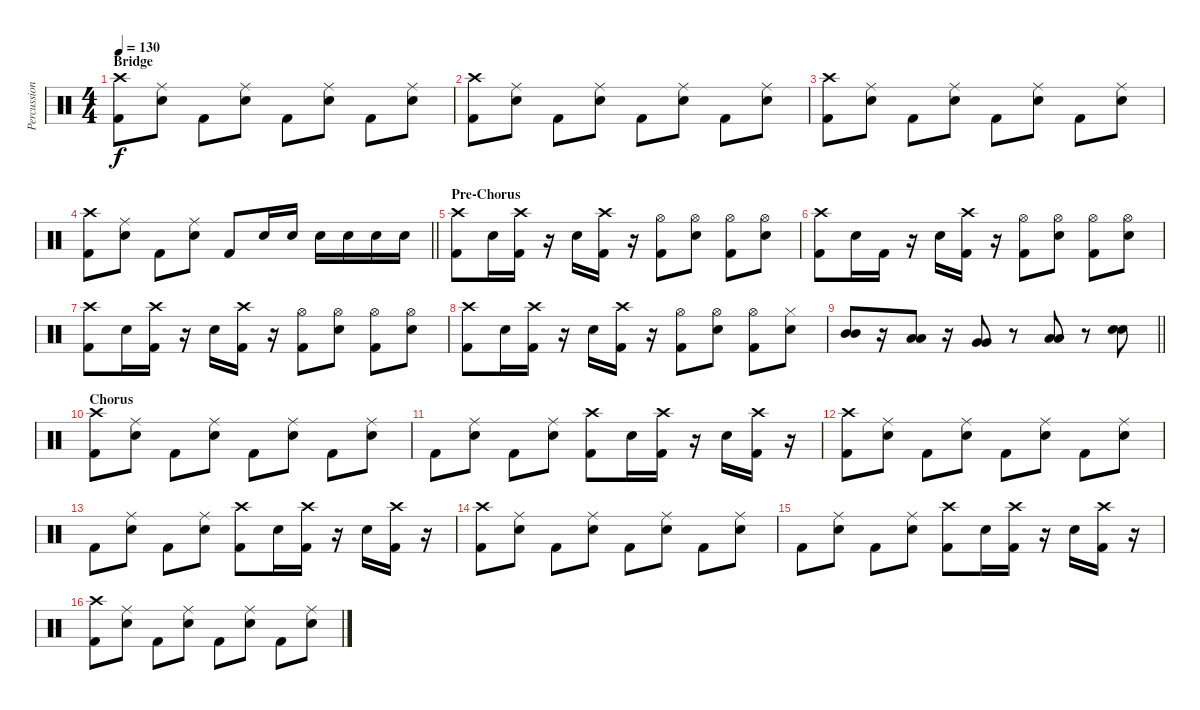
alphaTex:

\track ("Percussion" "Percussion") {instrument percussion}
\staff {score}
\articulation defaults
\ts (4 4)
\section ("" "Bridge")
\tempo 130
\clef neutral
\ks c
("Crash high (hit)" "Kick (hit) 2").8{dy f} ("Ride (middle)" "Snare (hit) 2").8 "Kick (hit) 2".8 ("Ride (middle)" "Snare (hit) 2").8 "Kick (hit) 2".8 ("Ride (middle)" "Snare (hit) 2").8 "Kick (hit) 2".8 ("Ride (middle)" "Snare (hit) 2").8 |
("Crash high (hit)" "Kick (hit) 2").8 ("Ride (middle)" "Snare (hit) 2").8 "Kick (hit) 2".8 ("Ride (middle)" "Snare (hit) 2").8 "Kick (hit) 2".8 ("Ride (middle)" "Snare (hit) 2").8 "Kick (hit) 2".8 ("Ride (middle)" "Snare (hit) 2").8 |
("Crash high (hit)" "Kick (hit) 2").8 ("Ride (middle)" "Snare (hit) 2").8 "Kick (hit) 2".8 ("Ride (middle)" "Snare (hit) 2").8 "Kick (hit) 2".8 ("Ride (middle)" "Snare (hit) 2").8 "Kick (hit) 2".8 ("Ride (middle)" "Snare (hit) 2").8 |
\barLineRight lightlight
("Crash high (hit)" "Kick (hit) 2").8 ("Ride (middle)" "Snare (hit) 2").8 "Kick (hit) 2".8 ("Ride (middle)" "Snare (hit) 2").8 "Kick (hit) 2".8 "Snare (hit) 2".16 "Snare (hit) 2".16 "Snare (hit) 2".16 "Snare (hit) 2".16 "Snare (hit) 2".16 "Snare (hit) 2".16 |
\section ("" "Pre-Chorus")
("Crash high (hit)" "Kick (hit) 2").8 "Snare (hit) 2".16 ("Crash high (hit)" "Kick (hit) 2").16 r.16 "Snare (hit) 2".16 ("Crash high (hit)" "Kick (hit) 2").16 r.16 ("Hi-Hat (open)" "Kick (hit) 2").8 ("Hi-Hat (open)" "Snare (hit) 2").8 ("Hi-Hat (open)" "Kick (hit) 2").8 ("Hi-Hat (open)" "Snare (hit) 2").8 |
("Crash high (hit)" "Kick (hit) 2").8 "Snare (hit) 2".16 "Kick (hit) 2".16 r.16 "Snare (hit) 2".16 ("Crash high (hit)" "Kick (hit) 2").16 r.16 ("Hi-Hat (open)" "Kick (hit) 2").8 ("Hi-Hat (open)" "Snare (hit) 2").8 ("Hi-Hat (open)" "Kick (hit) 2").8 ("Hi-Hat (open)" "Snare (hit) 2").8 |
("Crash high (hit)" "Kick (hit) 2").8 "Snare (hit) 2".16 ("Crash high (hit)" "Kick (hit) 2").16 r.16 "Snare (hit) 2".16 ("Crash high (hit)" "Kick (hit) 2").16 r.16 ("Hi-Hat (open)" "Kick (hit) 2").8 ("Hi-Hat (open)" "Snare (hit) 2").8 ("Hi-Hat (open)" "Kick (hit) 2").8 ("Hi-Hat (open)" "Snare (hit) 2").8 |
("Crash high (hit)" "Kick (hit) 2").8 "Snare (hit) 2".16 ("Crash high (hit)" "Kick (hit) 2").16 r.16 "Snare (hit) 2".16 ("Crash high (hit)" "Kick (hit) 2").16 r.16 ("Hi-Hat (open)" "Kick (hit) 2").8 ("Hi-Hat (open)" "Snare (hit) 2").8 ("Hi-Hat (open)" "Kick (hit) 2").8 ("Hi-Hat (closed)" "Snare (hit) 2").8 |
\barLineRight lightlight
("Mid Tom (hit)" "Mid Tom (hit)").8 r.16 ("Low Tom (hit)" "Low Tom (hit)").8 r.16 ("Very Low Tom (hit)" "Very Low Tom (hit)").8 r.8 ("Low Floor Tom (hit)" "Low Floor Tom (hit)").8 r.8 ("Snare (hit) 2" "Snare (hit) 2").8 |
\section ("" "Chorus")
("Crash high (hit)" "Kick (hit) 2").8 ("Ride (middle)" "Snare (hit) 2").8 "Kick (hit) 2".8 ("Ride (middle)" "Snare (hit) 2").8 "Kick (hit) 2".8 ("Ride (middle)" "Snare (hit) 2").8 "Kick (hit) 2".8 ("Ride (middle)" "Snare (hit) 2").8 |
"Kick (hit) 2".8 ("Ride (middle)" "Snare (hit) 2").8 "Kick (hit) 2".8 ("Ride (middle)" "Snare (hit) 2").8 ("Crash high (hit)" "Kick (hit) 2").8 "Snare (hit) 2".16 ("Crash high (hit)" "Kick (hit) 2").16 r.16 "Snare (hit) 2".16 ("Crash high (hit)" "Kick (hit) 2").16 r.16 |
("Crash high (hit)" "Kick (hit) 2").8 ("Ride (middle)" "Snare (hit) 2").8 "Kick (hit) 2".8 ("Ride (middle)" "Snare (hit) 2").8 "Kick (hit) 2".8 ("Ride (middle)" "Snare (hit) 2").8 "Kick (hit) 2".8 ("Ride (middle)" "Snare (hit) 2").8 |
"Kick (hit) 2".8 ("Ride (middle)" "Snare (hit) 2").8 "Kick (hit) 2".8 ("Ride (middle)" "Snare (hit) 2").8 ("Crash high (hit)" "Kick (hit) 2").8 "Snare (hit) 2".16 ("Crash high (hit)" "Kick (hit) 2").16 r.16 "Snare (hit) 2".16 ("Crash high (hit)" "Kick (hit) 2").16 r.16 |
("Crash high (hit)" "Kick (hit) 2").8 ("Ride (middle)" "Snare (hit) 2").8 "Kick (hit) 2".8 ("Ride (middle)" "Snare (hit) 2").8 "Kick (hit) 2".8 ("Ride (middle)" "Snare (hit) 2").8 "Kick (hit) 2".8 ("Ride (middle)" "Snare (hit) 2").8 |
"Kick (hit) 2".8 ("Ride (middle)" "Snare (hit) 2").8 "Kick (hit) 2".8 ("Ride (middle)" "Snare (hit) 2").8 ("Crash high (hit)" "Kick (hit) 2").8 "Snare (hit) 2".16 ("Crash high (hit)" "Kick (hit) 2").16 r.16 "Snare (hit) 2".16 ("Crash high (hit)" "Kick (hit) 2").16 r.16 |
("Crash high (hit)" "Kick (hit) 2").8 ("Ride (middle)" "Snare (hit) 2").8 "Kick (hit) 2".8 ("Ride (middle)" "Snare (hit) 2").8 "Kick (hit) 2".8 ("Ride (middle)" "Snare (hit) 2").8 "Kick (hit) 2".8 ("Ride (middle)" "Snare (hit) 2").8
